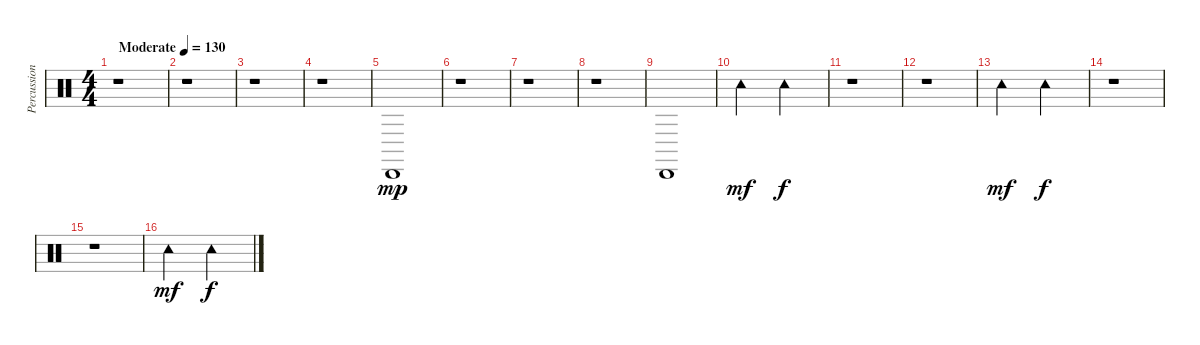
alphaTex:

\track ("Percussion" "Percussion") {instrument percussion}
\staff {score}
\articulation defaults
\ts (4 4)
\tempo (130 "Moderate")
\clef neutral
\ks c
r.1{dy mp} |
r.1 |
r.1 |
r.1 |
"Cabasa (hit)".1 |
r.1 |
r.1 |
r.1 |
"Cabasa (hit)".1 |
"Tambourine (hit)".2{dy mf} "Tambourine (hit)".2{dy f} |
r.1 |
r.1 |
"Tambourine (hit)".2{dy mf} "Tambourine (hit)".2{dy f} |
r.1 |
r.1 |
"Tambourine (hit)".2{dy mf} "Tambourine (hit)".2{dy f}
